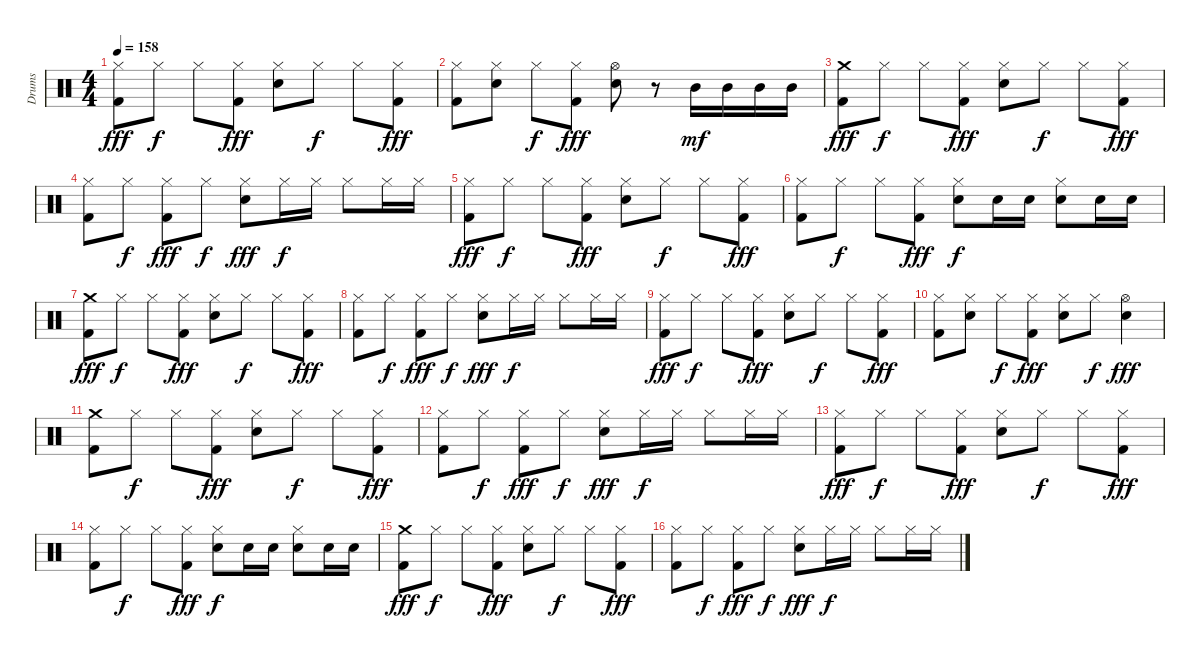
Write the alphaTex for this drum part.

\track ("Drums" "Drums") {instrument percussion}
\staff {score}
\articulation defaults
\ts (4 4)
\tempo 158
\clef neutral
\ks c
("Hi-Hat (closed)" "Kick (hit) 2").8{dy fff} "Hi-Hat (closed)".8{dy f} "Hi-Hat (closed)".8 ("Hi-Hat (closed)" "Kick (hit) 2").8{dy fff} ("Hi-Hat (closed)" "Snare (hit) 2").8 "Hi-Hat (closed)".8{dy f} "Hi-Hat (closed)".8 ("Hi-Hat (closed)" "Kick (hit) 2").8{dy fff} |
("Hi-Hat (closed)" "Kick (hit) 2").8 ("Hi-Hat (closed)" "Snare (hit) 2").8 "Hi-Hat (closed)".8{dy f} ("Hi-Hat (closed)" "Kick (hit) 2").8{dy fff} ("Hi-Hat (open)" "Snare (hit) 2").8 r.8 "Mid Tom (hit)".16{dy mf} "Mid Tom (hit)".16 "Mid Tom (hit)".16 "Mid Tom (hit)".16 |
("Crash medium (hit)" "Kick (hit) 2").8{dy fff} "Hi-Hat (closed)".8{dy f} "Hi-Hat (closed)".8 ("Hi-Hat (closed)" "Kick (hit) 2").8{dy fff} ("Hi-Hat (closed)" "Snare (hit) 2").8 "Hi-Hat (closed)".8{dy f} "Hi-Hat (closed)".8 ("Hi-Hat (closed)" "Kick (hit) 2").8{dy fff} |
("Hi-Hat (closed)" "Kick (hit) 2").8 "Hi-Hat (closed)".8{dy f} ("Hi-Hat (closed)" "Kick (hit) 2").8{dy fff} "Hi-Hat (closed)".8{dy f} ("Hi-Hat (closed)" "Snare (hit) 2").8{dy fff} "Hi-Hat (closed)".16{dy f} "Hi-Hat (closed)".16 "Hi-Hat (closed)".8 "Hi-Hat (closed)".16 "Hi-Hat (closed)".16 |
("Hi-Hat (closed)" "Kick (hit) 2").8{dy fff} "Hi-Hat (closed)".8{dy f} "Hi-Hat (closed)".8 ("Hi-Hat (closed)" "Kick (hit) 2").8{dy fff} ("Hi-Hat (closed)" "Snare (hit) 2").8 "Hi-Hat (closed)".8{dy f} "Hi-Hat (closed)".8 ("Hi-Hat (closed)" "Kick (hit) 2").8{dy fff} |
("Hi-Hat (closed)" "Kick (hit) 2").8 "Hi-Hat (closed)".8{dy f} "Hi-Hat (closed)".8 ("Hi-Hat (closed)" "Kick (hit) 2").8{dy fff} ("Hi-Hat (closed)" "Snare (hit) 2").8{dy f} "Snare (hit) 2".16 "Snare (hit) 2".16 ("Hi-Hat (closed)" "Snare (hit) 2").8 "Snare (hit) 2".16 "Snare (hit) 2".16 |
("Crash medium (hit)" "Kick (hit) 2").8{dy fff} "Hi-Hat (closed)".8{dy f} "Hi-Hat (closed)".8 ("Hi-Hat (closed)" "Kick (hit) 2").8{dy fff} ("Hi-Hat (closed)" "Snare (hit) 2").8 "Hi-Hat (closed)".8{dy f} "Hi-Hat (closed)".8 ("Hi-Hat (closed)" "Kick (hit) 2").8{dy fff} |
("Hi-Hat (closed)" "Kick (hit) 2").8 "Hi-Hat (closed)".8{dy f} ("Hi-Hat (closed)" "Kick (hit) 2").8{dy fff} "Hi-Hat (closed)".8{dy f} ("Hi-Hat (closed)" "Snare (hit) 2").8{dy fff} "Hi-Hat (closed)".16{dy f} "Hi-Hat (closed)".16 "Hi-Hat (closed)".8 "Hi-Hat (closed)".16 "Hi-Hat (closed)".16 |
("Hi-Hat (closed)" "Kick (hit) 2").8{dy fff} "Hi-Hat (closed)".8{dy f} "Hi-Hat (closed)".8 ("Hi-Hat (closed)" "Kick (hit) 2").8{dy fff} ("Hi-Hat (closed)" "Snare (hit) 2").8 "Hi-Hat (closed)".8{dy f} "Hi-Hat (closed)".8 ("Hi-Hat (closed)" "Kick (hit) 2").8{dy fff} |
("Hi-Hat (closed)" "Kick (hit) 2").8 ("Hi-Hat (closed)" "Snare (hit) 2").8 "Hi-Hat (closed)".8{dy f} ("Hi-Hat (closed)" "Kick (hit) 2").8{dy fff} ("Hi-Hat (closed)" "Snare (hit) 2").8 "Hi-Hat (closed)".8{dy f} ("Hi-Hat (open)" "Snare (hit) 2").4{dy fff} |
("Crash medium (hit)" "Kick (hit) 2").8 "Hi-Hat (closed)".8{dy f} "Hi-Hat (closed)".8 ("Hi-Hat (closed)" "Kick (hit) 2").8{dy fff} ("Hi-Hat (closed)" "Snare (hit) 2").8 "Hi-Hat (closed)".8{dy f} "Hi-Hat (closed)".8 ("Hi-Hat (closed)" "Kick (hit) 2").8{dy fff} |
("Hi-Hat (closed)" "Kick (hit) 2").8 "Hi-Hat (closed)".8{dy f} ("Hi-Hat (closed)" "Kick (hit) 2").8{dy fff} "Hi-Hat (closed)".8{dy f} ("Hi-Hat (closed)" "Snare (hit) 2").8{dy fff} "Hi-Hat (closed)".16{dy f} "Hi-Hat (closed)".16 "Hi-Hat (closed)".8 "Hi-Hat (closed)".16 "Hi-Hat (closed)".16 |
("Hi-Hat (closed)" "Kick (hit) 2").8{dy fff} "Hi-Hat (closed)".8{dy f} "Hi-Hat (closed)".8 ("Hi-Hat (closed)" "Kick (hit) 2").8{dy fff} ("Hi-Hat (closed)" "Snare (hit) 2").8 "Hi-Hat (closed)".8{dy f} "Hi-Hat (closed)".8 ("Hi-Hat (closed)" "Kick (hit) 2").8{dy fff} |
("Hi-Hat (closed)" "Kick (hit) 2").8 "Hi-Hat (closed)".8{dy f} "Hi-Hat (closed)".8 ("Hi-Hat (closed)" "Kick (hit) 2").8{dy fff} ("Hi-Hat (closed)" "Snare (hit) 2").8{dy f} "Snare (hit) 2".16 "Snare (hit) 2".16 ("Hi-Hat (closed)" "Snare (hit) 2").8 "Snare (hit) 2".16 "Snare (hit) 2".16 |
("Crash medium (hit)" "Kick (hit) 2").8{dy fff} "Hi-Hat (closed)".8{dy f} "Hi-Hat (closed)".8 ("Hi-Hat (closed)" "Kick (hit) 2").8{dy fff} ("Hi-Hat (closed)" "Snare (hit) 2").8 "Hi-Hat (closed)".8{dy f} "Hi-Hat (closed)".8 ("Hi-Hat (closed)" "Kick (hit) 2").8{dy fff} |
("Hi-Hat (closed)" "Kick (hit) 2").8 "Hi-Hat (closed)".8{dy f} ("Hi-Hat (closed)" "Kick (hit) 2").8{dy fff} "Hi-Hat (closed)".8{dy f} ("Hi-Hat (closed)" "Snare (hit) 2").8{dy fff} "Hi-Hat (closed)".16{dy f} "Hi-Hat (closed)".16 "Hi-Hat (closed)".8 "Hi-Hat (closed)".16 "Hi-Hat (closed)".16
